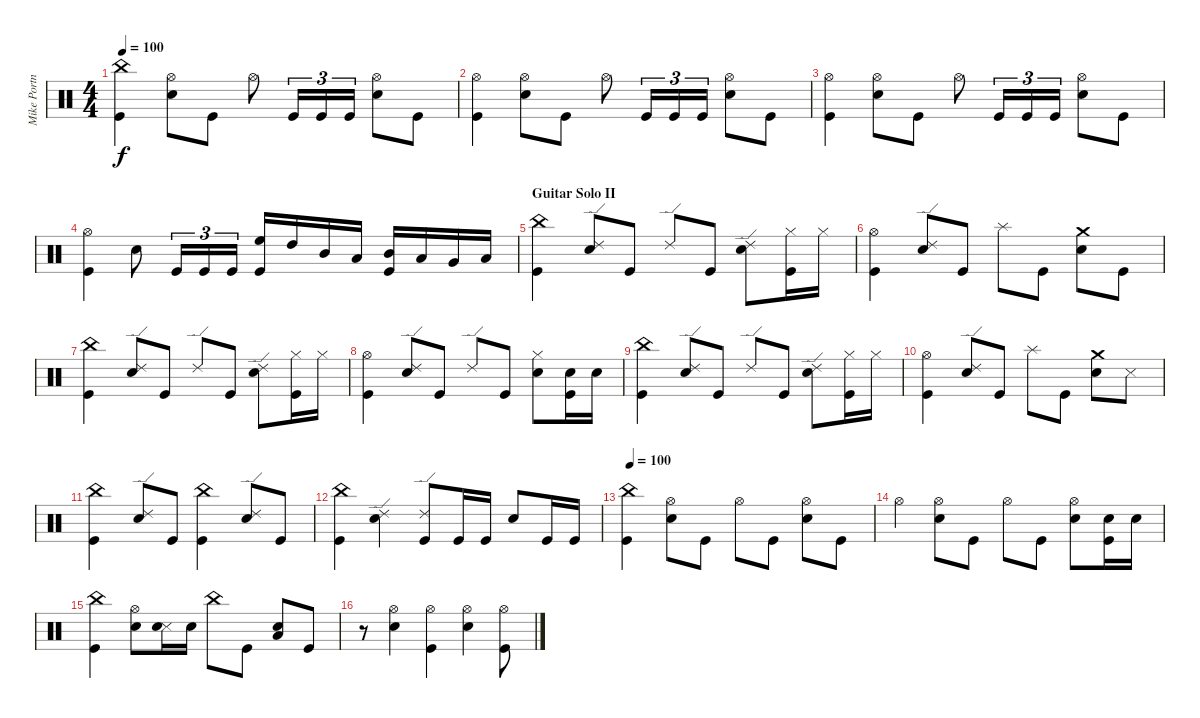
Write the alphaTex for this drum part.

\track ("Mike Portnoy (Drums)" "Mike Portn") {instrument percussion}
\staff {score}
\articulation defaults
\ts (4 4)
\tempo 100
\clef neutral
\ks c
("Kick (hit)" "China (hit)").4{dy f} ("Snare (hit) 2" "Hi-Hat (open)").8 "Kick (hit)".8 "Hi-Hat (open)".8 "Kick (hit)".16{tu (3 2)} "Kick (hit)".16{tu (3 2)} "Kick (hit)".16{tu (3 2)} ("Snare (hit) 2" "Hi-Hat (open)").8 "Kick (hit)".8 |
("Kick (hit)" "Hi-Hat (open)").4 ("Snare (hit) 2" "Hi-Hat (open)").8 "Kick (hit)".8 "Hi-Hat (open)".8 "Kick (hit)".16{tu (3 2)} "Kick (hit)".16{tu (3 2)} "Kick (hit)".16{tu (3 2)} ("Snare (hit) 2" "Hi-Hat (open)").8 "Kick (hit)".8 |
("Kick (hit)" "Hi-Hat (open)").4 ("Snare (hit) 2" "Hi-Hat (open)").8 "Kick (hit)".8 "Hi-Hat (open)".8 "Kick (hit)".16{tu (3 2)} "Kick (hit)".16{tu (3 2)} "Kick (hit)".16{tu (3 2)} ("Snare (hit) 2" "Hi-Hat (open)").8 "Kick (hit)".8 |
("Hi-Hat (open)" "Kick (hit)").4 "Snare (hit) 2".8 "Kick (hit)".16{tu (3 2)} "Kick (hit)".16{tu (3 2)} "Kick (hit)".16{tu (3 2)} ("High Floor Tom (hit)" "Kick (hit)").16 "High Tom (hit)".16 "Mid Tom (hit)".16 "Low Tom (hit)".16 ("Mid Tom (hit)" "Kick (hit)").16 "Low Tom (hit)".16 "Very Low Tom (hit)".16 "Low Floor Tom (hit)".16 |
\section ("" "Guitar Solo II")
("Kick (hit)" "China (hit)").4 ("Snare (hit) 2" "Ride (edge) 2").8 "Kick (hit)".8 "Ride (edge) 2".8 "Kick (hit)".8 ("Snare (hit) 2" "Ride (edge) 2").8 ("Kick (hit)" "Hi-Hat (closed)").16 "Hi-Hat (closed)".16 |
("Kick (hit)" "Hi-Hat (open)").4 ("Snare (hit) 2" "Ride (edge) 2").8 "Kick (hit)".8 "Splash (hit)".8 "Kick (hit)".8 ("Snare (hit) 2" "Crash medium (hit)").8 "Kick (hit)".8 |
("Kick (hit)" "China (hit)").4 ("Snare (hit) 2" "Ride (edge) 2").8 "Kick (hit)".8 "Ride (edge) 2".8 "Kick (hit)".8 ("Snare (hit) 2" "Ride (edge) 2").8 ("Kick (hit)" "Hi-Hat (closed)").16 "Hi-Hat (closed)".16 |
("Kick (hit)" "Hi-Hat (open)").4 ("Snare (hit) 2" "Ride (edge) 2").8 "Kick (hit)".8 "Ride (edge) 2".8 "Kick (hit)".8 ("Snare (hit) 2" "Hi-Hat (closed)").8 ("Kick (hit)" "Snare (hit) 2").16 "Snare (hit) 2".16 |
("Kick (hit)" "China (hit)").4 ("Snare (hit) 2" "Ride (edge) 2").8 "Kick (hit)".8 "Ride (edge) 2".8 "Kick (hit)".8 ("Snare (hit) 2" "Ride (edge) 2").8 ("Kick (hit)" "Hi-Hat (closed)").16 "Hi-Hat (closed)".16 |
("Kick (hit)" "Hi-Hat (open)").4 ("Snare (hit) 2" "Ride (edge) 2").8 "Kick (hit)".8 "Splash (hit)".8 "Kick (hit)".8 ("Snare (hit) 2" "Crash medium (hit)").8 "Metronome (hit)".8 |
("Kick (hit)" "China (hit)").4 ("Snare (hit) 2" "Ride (edge) 2").8 "Kick (hit)".8 ("Kick (hit)" "China (hit)").4 ("Snare (hit) 2" "Ride (edge) 2").8 "Kick (hit)".8 |
("Kick (hit)" "China (hit)").4 ("Snare (hit) 2" "Ride (edge) 2").4 ("Kick (hit)" "Ride (edge) 2").8 "Kick (hit)".16 "Kick (hit)".16 "Snare (hit) 2".8 "Kick (hit)".16 "Kick (hit)".16 |
\tempo 100
("Kick (hit)" "China (hit)").4 ("Snare (hit) 2" "Hi-Hat (open)").8 "Kick (hit)".8 "Hi-Hat (open)".8 "Kick (hit)".8 ("Snare (hit) 2" "Hi-Hat (open)").8 "Kick (hit)".8 |
"Hi-Hat (open)".4 ("Snare (hit) 2" "Hi-Hat (open)").8 "Kick (hit)".8 "Hi-Hat (open)".8 "Kick (hit)".8 ("Snare (hit) 2" "Hi-Hat (open)").8 ("Kick (hit)" "Snare (hit) 2").16 "Snare (hit) 2".16 |
("Kick (hit)" "China (hit)").4 ("Snare (hit) 2" "Hi-Hat (open)").8 ("Metronome (hit)" "Snare (hit) 2").16 "Snare (hit) 2".16 "China (hit)".8 "Kick (hit)".8 ("Snare (hit) 2" "Low Tom (hit)").8 "Kick (hit)".8 |
r.8 ("Snare (hit) 2" "Hi-Hat (open)").4 ("Kick (hit)" "Hi-Hat (open)").4 ("Snare (hit) 2" "Hi-Hat (open)").4 ("Kick (hit)" "Hi-Hat (open)").8
